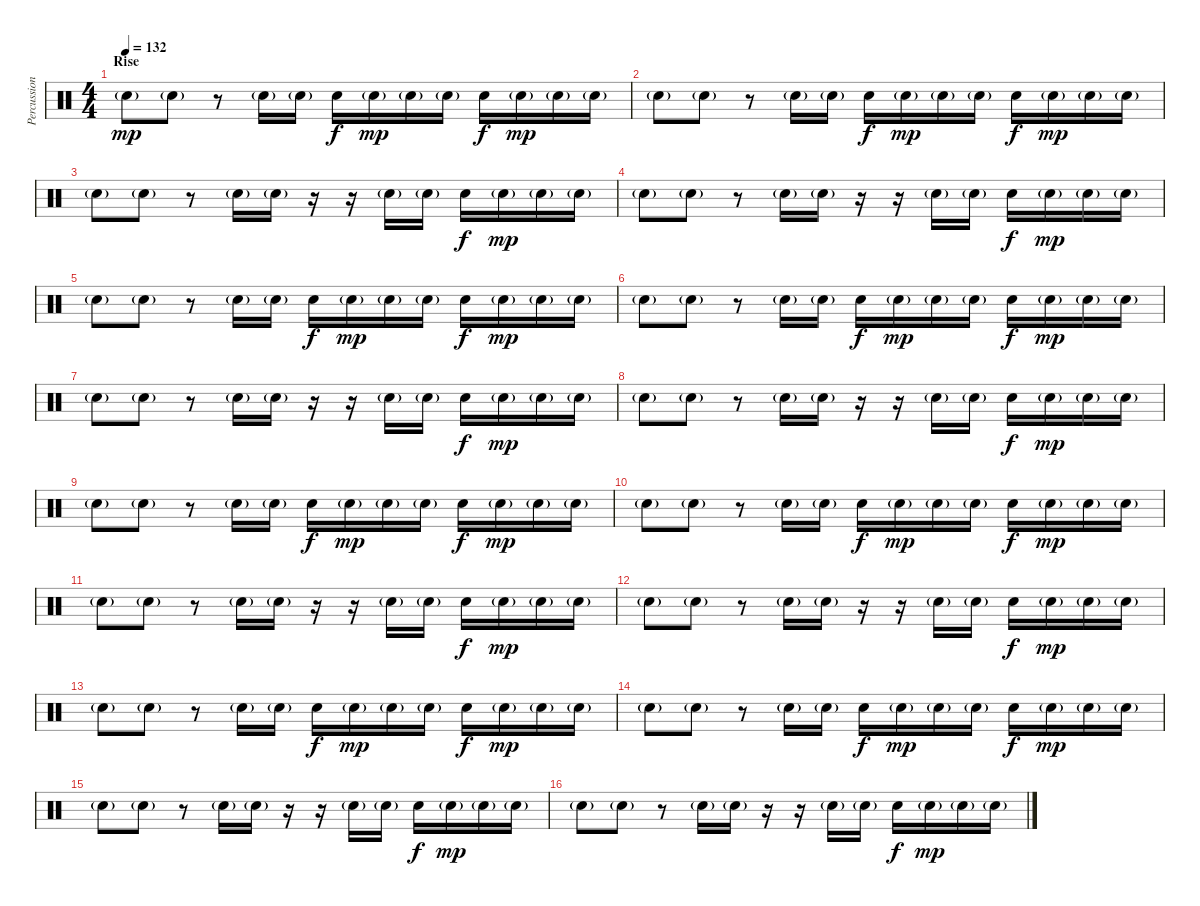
\track ("Percussion" "Percussion") {instrument percussion}
\staff {score}
\articulation defaults
\ts (4 4)
\section ("" "Rise")
\tempo 132
\clef neutral
\ks c "Electric Snare (hit)"{g}.8{dy mp} "Electric Snare (hit)"{g}.8
r.8 "Electric Snare (hit)"{g}.16 "Electric Snare (hit)"{g}.16 "Electric Snare (hit)".16{dy f} "Electric Snare (hit)"{g}.16{dy mp} "Electric Snare (hit)"{g}.16 "Electric Snare (hit)"{g}.16 "Electric Snare (hit)".16{dy f} "Electric Snare (hit)"{g}.16{dy mp} "Electric Snare (hit)"{g}.16 "Electric Snare (hit)"{g}.16 |
"Electric Snare (hit)"{g}.8 "Electric Snare (hit)"{g}.8 r.8 "Electric Snare (hit)"{g}.16 "Electric Snare (hit)"{g}.16 "Electric Snare (hit)".16{dy f} "Electric Snare (hit)"{g}.16{dy mp} "Electric Snare (hit)"{g}.16 "Electric Snare (hit)"{g}.16 "Electric Snare (hit)".16{dy f} "Electric Snare (hit)"{g}.16{dy mp} "Electric Snare (hit)"{g}.16 "Electric Snare (hit)"{g}.16 |
"Electric Snare (hit)"{g}.8 "Electric Snare (hit)"{g}.8 r.8 "Electric Snare (hit)"{g}.16 "Electric Snare (hit)"{g}.16 r.16 r.16 "Electric Snare (hit)"{g}.16 "Electric Snare (hit)"{g}.16 "Electric Snare (hit)".16{dy f} "Electric Snare (hit)"{g}.16{dy mp} "Electric Snare (hit)"{g}.16 "Electric Snare (hit)"{g}.16 |
"Electric Snare (hit)"{g}.8 "Electric Snare (hit)"{g}.8 r.8 "Electric Snare (hit)"{g}.16 "Electric Snare (hit)"{g}.16 r.16 r.16 "Electric Snare (hit)"{g}.16 "Electric Snare (hit)"{g}.16 "Electric Snare (hit)".16{dy f} "Electric Snare (hit)"{g}.16{dy mp} "Electric Snare (hit)"{g}.16 "Electric Snare (hit)"{g}.16 |
"Electric Snare (hit)"{g}.8 "Electric Snare (hit)"{g}.8 r.8 "Electric Snare (hit)"{g}.16 "Electric Snare (hit)"{g}.16 "Electric Snare (hit)".16{dy f} "Electric Snare (hit)"{g}.16{dy mp} "Electric Snare (hit)"{g}.16 "Electric Snare (hit)"{g}.16 "Electric Snare (hit)".16{dy f} "Electric Snare (hit)"{g}.16{dy mp} "Electric Snare (hit)"{g}.16 "Electric Snare (hit)"{g}.16 |
"Electric Snare (hit)"{g}.8 "Electric Snare (hit)"{g}.8 r.8 "Electric Snare (hit)"{g}.16 "Electric Snare (hit)"{g}.16 "Electric Snare (hit)".16{dy f} "Electric Snare (hit)"{g}.16{dy mp} "Electric Snare (hit)"{g}.16 "Electric Snare (hit)"{g}.16 "Electric Snare (hit)".16{dy f} "Electric Snare (hit)"{g}.16{dy mp} "Electric Snare (hit)"{g}.16 "Electric Snare (hit)"{g}.16 |
"Electric Snare (hit)"{g}.8 "Electric Snare (hit)"{g}.8 r.8 "Electric Snare (hit)"{g}.16 "Electric Snare (hit)"{g}.16 r.16 r.16 "Electric Snare (hit)"{g}.16 "Electric Snare (hit)"{g}.16 "Electric Snare (hit)".16{dy f} "Electric Snare (hit)"{g}.16{dy mp} "Electric Snare (hit)"{g}.16 "Electric Snare (hit)"{g}.16 |
"Electric Snare (hit)"{g}.8 "Electric Snare (hit)"{g}.8 r.8 "Electric Snare (hit)"{g}.16 "Electric Snare (hit)"{g}.16 r.16 r.16 "Electric Snare (hit)"{g}.16 "Electric Snare (hit)"{g}.16 "Electric Snare (hit)".16{dy f} "Electric Snare (hit)"{g}.16{dy mp} "Electric Snare (hit)"{g}.16 "Electric Snare (hit)"{g}.16 |
"Electric Snare (hit)"{g}.8 "Electric Snare (hit)"{g}.8 r.8 "Electric Snare (hit)"{g}.16 "Electric Snare (hit)"{g}.16 "Electric Snare (hit)".16{dy f} "Electric Snare (hit)"{g}.16{dy mp} "Electric Snare (hit)"{g}.16 "Electric Snare (hit)"{g}.16 "Electric Snare (hit)".16{dy f} "Electric Snare (hit)"{g}.16{dy mp} "Electric Snare (hit)"{g}.16 "Electric Snare (hit)"{g}.16 |
"Electric Snare (hit)"{g}.8 "Electric Snare (hit)"{g}.8 r.8 "Electric Snare (hit)"{g}.16 "Electric Snare (hit)"{g}.16 "Electric Snare (hit)".16{dy f} "Electric Snare (hit)"{g}.16{dy mp} "Electric Snare (hit)"{g}.16 "Electric Snare (hit)"{g}.16 "Electric Snare (hit)".16{dy f} "Electric Snare (hit)"{g}.16{dy mp} "Electric Snare (hit)"{g}.16 "Electric Snare (hit)"{g}.16 |
"Electric Snare (hit)"{g}.8 "Electric Snare (hit)"{g}.8 r.8 "Electric Snare (hit)"{g}.16 "Electric Snare (hit)"{g}.16 r.16 r.16 "Electric Snare (hit)"{g}.16 "Electric Snare (hit)"{g}.16 "Electric Snare (hit)".16{dy f} "Electric Snare (hit)"{g}.16{dy mp} "Electric Snare (hit)"{g}.16 "Electric Snare (hit)"{g}.16 |
"Electric Snare (hit)"{g}.8 "Electric Snare (hit)"{g}.8 r.8 "Electric Snare (hit)"{g}.16 "Electric Snare (hit)"{g}.16 r.16 r.16 "Electric Snare (hit)"{g}.16 "Electric Snare (hit)"{g}.16 "Electric Snare (hit)".16{dy f} "Electric Snare (hit)"{g}.16{dy mp} "Electric Snare (hit)"{g}.16 "Electric Snare (hit)"{g}.16 |
"Electric Snare (hit)"{g}.8 "Electric Snare (hit)"{g}.8 r.8 "Electric Snare (hit)"{g}.16 "Electric Snare (hit)"{g}.16 "Electric Snare (hit)".16{dy f} "Electric Snare (hit)"{g}.16{dy mp} "Electric Snare (hit)"{g}.16 "Electric Snare (hit)"{g}.16 "Electric Snare (hit)".16{dy f} "Electric Snare (hit)"{g}.16{dy mp} "Electric Snare (hit)"{g}.16 "Electric Snare (hit)"{g}.16 |
"Electric Snare (hit)"{g}.8 "Electric Snare (hit)"{g}.8 r.8 "Electric Snare (hit)"{g}.16 "Electric Snare (hit)"{g}.16 "Electric Snare (hit)".16{dy f} "Electric Snare (hit)"{g}.16{dy mp} "Electric Snare (hit)"{g}.16 "Electric Snare (hit)"{g}.16 "Electric Snare (hit)".16{dy f} "Electric Snare (hit)"{g}.16{dy mp} "Electric Snare (hit)"{g}.16 "Electric Snare (hit)"{g}.16 |
"Electric Snare (hit)"{g}.8 "Electric Snare (hit)"{g}.8 r.8 "Electric Snare (hit)"{g}.16 "Electric Snare (hit)"{g}.16 r.16 r.16 "Electric Snare (hit)"{g}.16 "Electric Snare (hit)"{g}.16 "Electric Snare (hit)".16{dy f} "Electric Snare (hit)"{g}.16{dy mp} "Electric Snare (hit)"{g}.16 "Electric Snare (hit)"{g}.16 |
"Electric Snare (hit)"{g}.8 "Electric Snare (hit)"{g}.8 r.8 "Electric Snare (hit)"{g}.16 "Electric Snare (hit)"{g}.16 r.16 r.16 "Electric Snare (hit)"{g}.16 "Electric Snare (hit)"{g}.16 "Electric Snare (hit)".16{dy f} "Electric Snare (hit)"{g}.16{dy mp} "Electric Snare (hit)"{g}.16 "Electric Snare (hit)"{g}.16
